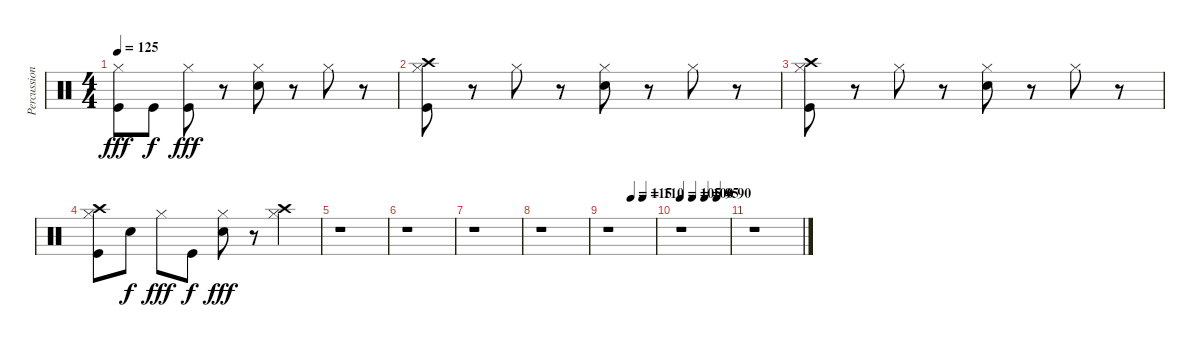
\track ("Percussion" "Percussion") {instrument percussion}
\staff {score}
\articulation defaults
\ts (4 4)
\tempo 125
\clef neutral
\ks c
("Hi-Hat (closed)" "Kick (hit)").8{dy fff} "Kick (hit)".8{dy f} ("Hi-Hat (closed)" "Kick (hit)").8{dy fff} r.8 ("Hi-Hat (closed)" "Snare (hit) 2").8 r.8 "Hi-Hat (closed)".8 r.8 |
("Hi-Hat (closed)" "Crash high (hit)" "Kick (hit)").8 r.8 "Hi-Hat (closed)".8 r.8 ("Hi-Hat (closed)" "Snare (hit) 2").8 r.8 "Hi-Hat (closed)".8 r.8 |
("Hi-Hat (closed)" "Crash high (hit)" "Kick (hit)").8 r.8 "Hi-Hat (closed)".8 r.8 ("Hi-Hat (closed)" "Snare (hit) 2").8 r.8 "Hi-Hat (closed)".8 r.8 |
("Hi-Hat (closed)" "Crash high (hit)" "Kick (hit)").8 "Snare (hit) 2".8{dy f} "Hi-Hat (closed)".8{dy fff} "Kick (hit)".8{dy f} ("Hi-Hat (closed)" "Snare (hit) 2").8{dy fff} r.8 ("Hi-Hat (closed)" "Crash high (hit)").4 |
r.1 |
r.1 |
r.1 |
r.1 |
\tempo (115 0.5)
\tempo (110 0.75)
r.1 |
\tempo 105
\tempo (100 0.25)
\tempo (95 0.5)
\tempo (90 0.75)
r.1 |
r.1
